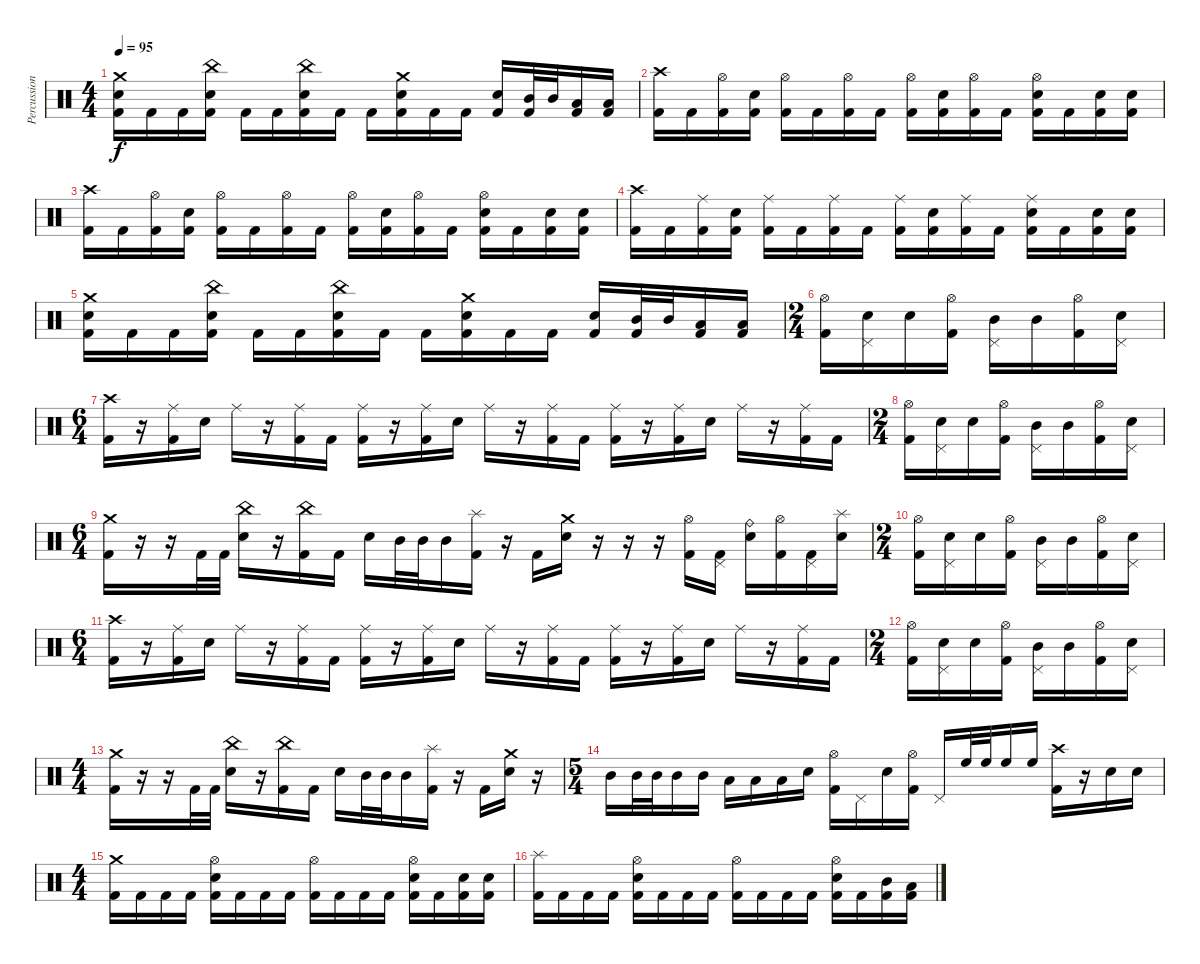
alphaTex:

\track ("Percussion" "Percussion") {instrument percussion}
\staff {score}
\articulation defaults
\ts (4 4)
\tempo 95
\clef neutral
\ks c
("Crash medium (hit)" "Electric Snare (hit)" "Kick (hit) 2").16{dy f} "Kick (hit) 2".16 "Kick (hit) 2".16 ("China (hit)" "Electric Snare (hit)" "Kick (hit) 2").16 "Kick (hit) 2".16 "Kick (hit) 2".16 ("China (hit)" "Electric Snare (hit)" "Kick (hit) 2").16 "Kick (hit) 2".16 "Kick (hit) 2".16 ("Crash medium (hit)" "Electric Snare (hit)" "Kick (hit) 2").16 "Kick (hit) 2".16 "Kick (hit) 2".16 ("Electric Snare (hit)" "Kick (hit) 2").16 ("Mid Tom (hit)" "Kick (hit) 2").32 "Mid Tom (hit)".32 ("Low Tom (hit)" "Kick (hit) 2").16 ("Low Tom (hit)" "Kick (hit) 2").16 |
("Crash high (hit)" "Kick (hit) 2").16 "Kick (hit) 2".16 ("Hi-Hat (open)" "Kick (hit) 2").16 ("Electric Snare (hit)" "Kick (hit) 2").16 ("Hi-Hat (open)" "Kick (hit) 2").16 "Kick (hit) 2".16 ("Hi-Hat (open)" "Kick (hit) 2").16 "Kick (hit) 2".16 ("Hi-Hat (open)" "Kick (hit) 2").16 ("Electric Snare (hit)" "Kick (hit) 2").16 ("Hi-Hat (open)" "Kick (hit) 2").16 "Kick (hit) 2".16 ("Hi-Hat (open)" "Electric Snare (hit)" "Kick (hit) 2").16 "Kick (hit) 2".16 ("Electric Snare (hit)" "Kick (hit) 2").16 ("Electric Snare (hit)" "Kick (hit) 2").16 |
("Crash high (hit)" "Kick (hit) 2").16 "Kick (hit) 2".16 ("Hi-Hat (open)" "Kick (hit) 2").16 ("Electric Snare (hit)" "Kick (hit) 2").16 ("Hi-Hat (open)" "Kick (hit) 2").16 "Kick (hit) 2".16 ("Hi-Hat (open)" "Kick (hit) 2").16 "Kick (hit) 2".16 ("Hi-Hat (open)" "Kick (hit) 2").16 ("Electric Snare (hit)" "Kick (hit) 2").16 ("Hi-Hat (open)" "Kick (hit) 2").16 "Kick (hit) 2".16 ("Hi-Hat (open)" "Electric Snare (hit)" "Kick (hit) 2").16 "Kick (hit) 2".16 ("Electric Snare (hit)" "Kick (hit) 2").16 ("Electric Snare (hit)" "Kick (hit) 2").16 |
("Crash high (hit)" "Kick (hit) 2").16 "Kick (hit) 2".16 ("Ride (middle)" "Kick (hit) 2").16 ("Electric Snare (hit)" "Kick (hit) 2").16 ("Ride (middle)" "Kick (hit) 2").16 "Kick (hit) 2".16 ("Ride (middle)" "Kick (hit) 2").16 "Kick (hit) 2".16 ("Ride (middle)" "Kick (hit) 2").16 ("Electric Snare (hit)" "Kick (hit) 2").16 ("Ride (middle)" "Kick (hit) 2").16 "Kick (hit) 2".16 ("Ride (middle)" "Electric Snare (hit)" "Kick (hit) 2").16 "Kick (hit) 2".16 ("Electric Snare (hit)" "Kick (hit) 2").16 ("Electric Snare (hit)" "Kick (hit) 2").16 |
("Crash medium (hit)" "Electric Snare (hit)" "Kick (hit) 2").16 "Kick (hit) 2".16 "Kick (hit) 2".16 ("China (hit)" "Electric Snare (hit)" "Kick (hit) 2").16 "Kick (hit) 2".16 "Kick (hit) 2".16 ("China (hit)" "Electric Snare (hit)" "Kick (hit) 2").16 "Kick (hit) 2".16 "Kick (hit) 2".16 ("Crash medium (hit)" "Electric Snare (hit)" "Kick (hit) 2").16 "Kick (hit) 2".16 "Kick (hit) 2".16 ("Electric Snare (hit)" "Kick (hit) 2").16 ("Mid Tom (hit)" "Kick (hit) 2").32 "Mid Tom (hit)".32 ("Low Tom (hit)" "Kick (hit) 2").16 ("Low Tom (hit)" "Kick (hit) 2").16 |
\ts (2 4)
("Hi-Hat (open)" "Kick (hit) 2").16 ("Pedal Hi-Hat (hit)" "Electric Snare (hit)").16 "Electric Snare (hit)".16 ("Hi-Hat (open)" "Kick (hit) 2").16 ("Mid Tom (hit)" "Pedal Hi-Hat (hit)").16 "Mid Tom (hit)".16 ("Hi-Hat (open)" "Kick (hit) 2").16 ("Pedal Hi-Hat (hit)" "Electric Snare (hit)").16 |
\ts (6 4)
("Crash high (hit)" "Kick (hit) 2").16 r.16 ("Ride (middle)" "Kick (hit) 2").16 "Electric Snare (hit)".16 "Ride (middle)".16 r.16 ("Ride (middle)" "Kick (hit) 2").16 "Kick (hit) 2".16 ("Ride (middle)" "Kick (hit) 2").16 r.16 ("Ride (middle)" "Kick (hit) 2").16 "Electric Snare (hit)".16 "Ride (middle)".16 r.16 ("Ride (middle)" "Kick (hit) 2").16 "Kick (hit) 2".16 ("Ride (middle)" "Kick (hit) 2").16 r.16 ("Ride (middle)" "Kick (hit) 2").16 "Electric Snare (hit)".16 "Ride (middle)".16 r.16 ("Ride (middle)" "Kick (hit) 2").16 "Kick (hit) 2".16 |
\ts (2 4)
("Hi-Hat (open)" "Kick (hit) 2").16 ("Pedal Hi-Hat (hit)" "Electric Snare (hit)").16 "Electric Snare (hit)".16 ("Hi-Hat (open)" "Kick (hit) 2").16 ("Mid Tom (hit)" "Pedal Hi-Hat (hit)").16 "Mid Tom (hit)".16 ("Hi-Hat (open)" "Kick (hit) 2").16 ("Pedal Hi-Hat (hit)" "Electric Snare (hit)").16 |
\ts (6 4)
("Crash medium (hit)" "Kick (hit) 2").16 r.16 r.16 "Kick (hit) 2".32 "Kick (hit) 2".32 ("China (hit)" "Electric Snare (hit)").16 r.16 ("China (hit)" "Kick (hit) 2").16 "Kick (hit) 2".16 "Electric Snare (hit)".16 "Mid Tom (hit)".32 "Mid Tom (hit)".32 "Mid Tom (hit)".16 ("Splash (hit)" "Kick (hit) 2").16 r.16 "Kick (hit) 2".16 ("Crash medium (hit)" "Electric Snare (hit)").16 r.16 r.16 r.16 ("Hi-Hat (open)" "Kick (hit) 2").16 ("Pedal Hi-Hat (hit)" "Kick (hit) 2").16 ("Ride (bell)" "Electric Snare (hit)").16 ("Hi-Hat (open)" "Kick (hit) 2").16 ("Pedal Hi-Hat (hit)" "Kick (hit) 2").16 ("Splash (hit)" "Electric Snare (hit)").16 |
\ts (2 4)
("Hi-Hat (open)" "Kick (hit) 2").16 ("Pedal Hi-Hat (hit)" "Electric Snare (hit)").16 "Electric Snare (hit)".16 ("Hi-Hat (open)" "Kick (hit) 2").16 ("Mid Tom (hit)" "Pedal Hi-Hat (hit)").16 "Mid Tom (hit)".16 ("Hi-Hat (open)" "Kick (hit) 2").16 ("Pedal Hi-Hat (hit)" "Electric Snare (hit)").16 |
\ts (6 4)
("Crash high (hit)" "Kick (hit) 2").16 r.16 ("Ride (middle)" "Kick (hit) 2").16 "Electric Snare (hit)".16 "Ride (middle)".16 r.16 ("Ride (middle)" "Kick (hit) 2").16 "Kick (hit) 2".16 ("Ride (middle)" "Kick (hit) 2").16 r.16 ("Ride (middle)" "Kick (hit) 2").16 "Electric Snare (hit)".16 "Ride (middle)".16 r.16 ("Ride (middle)" "Kick (hit) 2").16 "Kick (hit) 2".16 ("Ride (middle)" "Kick (hit) 2").16 r.16 ("Ride (middle)" "Kick (hit) 2").16 "Electric Snare (hit)".16 "Ride (middle)".16 r.16 ("Ride (middle)" "Kick (hit) 2").16 "Kick (hit) 2".16 |
\ts (2 4)
("Hi-Hat (open)" "Kick (hit) 2").16 ("Pedal Hi-Hat (hit)" "Electric Snare (hit)").16 "Electric Snare (hit)".16 ("Hi-Hat (open)" "Kick (hit) 2").16 ("Mid Tom (hit)" "Pedal Hi-Hat (hit)").16 "Mid Tom (hit)".16 ("Hi-Hat (open)" "Kick (hit) 2").16 ("Pedal Hi-Hat (hit)" "Electric Snare (hit)").16 |
\ts (4 4)
("Crash medium (hit)" "Kick (hit) 2").16 r.16 r.16 "Kick (hit) 2".32 "Kick (hit) 2".32 ("China (hit)" "Electric Snare (hit)").16 r.16 ("China (hit)" "Kick (hit) 2").16 "Kick (hit) 2".16 "Electric Snare (hit)".16 "Mid Tom (hit)".32 "Mid Tom (hit)".32 "Mid Tom (hit)".16 ("Splash (hit)" "Kick (hit) 2").16 r.16 "Kick (hit) 2".16 ("Crash medium (hit)" "Electric Snare (hit)").16 r.16 |
\ts (5 4)
"Mid Tom (hit)".16 "Mid Tom (hit)".32 "Mid Tom (hit)".32 "Mid Tom (hit)".16 "Mid Tom (hit)".16 "Low Tom (hit)".16 "Low Tom (hit)".16 "Low Tom (hit)".16 "Electric Snare (hit)".16 ("Hi-Hat (open)" "Kick (hit) 2").16 "Pedal Hi-Hat (hit)".16 "Electric Snare (hit)".16 ("Hi-Hat (open)" "Kick (hit) 2").16 "Pedal Hi-Hat (hit)".16 "High Floor Tom (hit)".32 "High Floor Tom (hit)".32 "High Floor Tom (hit)".16 "High Floor Tom (hit)".16 ("Crash high (hit)" "Kick (hit) 2").16 r.16 "Electric Snare (hit)".16 "Electric Snare (hit)".16 |
\ts (4 4)
("Crash medium (hit)" "Kick (hit) 2").16 "Kick (hit) 2".16 "Kick (hit) 2".16 "Kick (hit) 2".16 ("Hi-Hat (open)" "Electric Snare (hit)" "Kick (hit) 2").16 "Kick (hit) 2".16 "Kick (hit) 2".16 "Kick (hit) 2".16 ("Hi-Hat (open)" "Kick (hit) 2").16 "Kick (hit) 2".16 "Kick (hit) 2".16 "Kick (hit) 2".16 ("Hi-Hat (open)" "Electric Snare (hit)" "Kick (hit) 2").16 "Kick (hit) 2".16 ("Electric Snare (hit)" "Kick (hit) 2").16 ("Electric Snare (hit)" "Kick (hit) 2").16 |
("Splash (hit)" "Kick (hit) 2").16 "Kick (hit) 2".16 "Kick (hit) 2".16 "Kick (hit) 2".16 ("Hi-Hat (open)" "Electric Snare (hit)" "Kick (hit) 2").16 "Kick (hit) 2".16 "Kick (hit) 2".16 "Kick (hit) 2".16 ("Hi-Hat (open)" "Kick (hit) 2").16 "Kick (hit) 2".16 "Kick (hit) 2".16 "Kick (hit) 2".16 ("Hi-Hat (open)" "Electric Snare (hit)" "Kick (hit) 2").16 "Kick (hit) 2".16 ("Mid Tom (hit)" "Kick (hit) 2").16 ("Low Tom (hit)" "Kick (hit) 2").16
